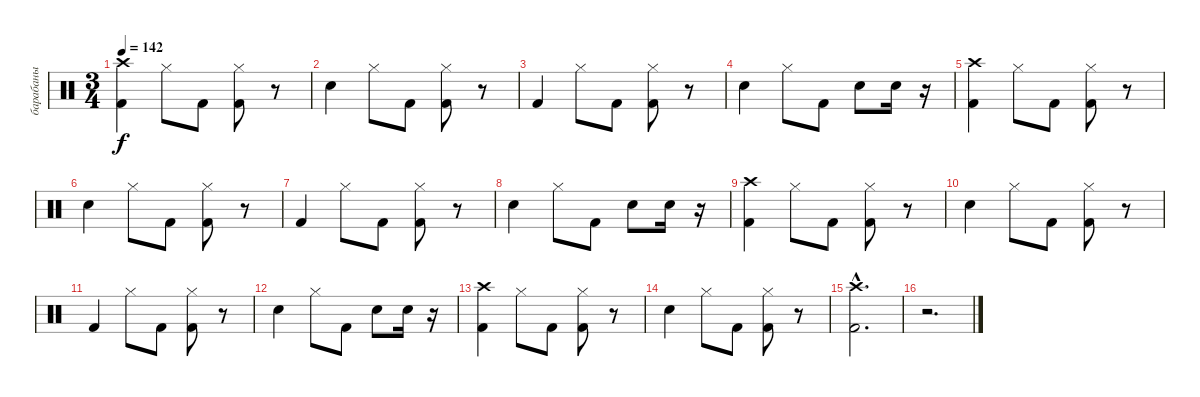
\track ("барабаны" "барабаны") {instrument percussion}
\staff {score}
\articulation defaults
\ts (3 4)
\tempo 142
\clef neutral
\ks c
("Crash high (hit)" "Kick (hit) 2").4{dy f} "Hi-Hat (closed)".8 "Kick (hit) 2".8 ("Hi-Hat (closed)" "Kick (hit) 2").8 r.8 |
"Snare (hit) 2".4 "Hi-Hat (closed)".8 "Kick (hit) 2".8 ("Hi-Hat (closed)" "Kick (hit) 2").8 r.8 |
"Kick (hit) 2".4 "Hi-Hat (closed)".8 "Kick (hit) 2".8 ("Hi-Hat (closed)" "Kick (hit) 2").8 r.8 |
"Snare (hit) 2".4 "Hi-Hat (closed)".8 "Kick (hit) 2".8 "Snare (hit) 2".8 "Snare (hit) 2".16 r.16 |
("Crash high (hit)" "Kick (hit) 2").4 "Hi-Hat (closed)".8 "Kick (hit) 2".8 ("Hi-Hat (closed)" "Kick (hit) 2").8 r.8 |
"Snare (hit) 2".4 "Hi-Hat (closed)".8 "Kick (hit) 2".8 ("Hi-Hat (closed)" "Kick (hit) 2").8 r.8 |
"Kick (hit) 2".4 "Hi-Hat (closed)".8 "Kick (hit) 2".8 ("Hi-Hat (closed)" "Kick (hit) 2").8 r.8 |
"Snare (hit) 2".4 "Hi-Hat (closed)".8 "Kick (hit) 2".8 "Snare (hit) 2".8 "Snare (hit) 2".16 r.16 |
("Crash high (hit)" "Kick (hit) 2").4 "Hi-Hat (closed)".8 "Kick (hit) 2".8 ("Hi-Hat (closed)" "Kick (hit) 2").8 r.8 |
"Snare (hit) 2".4 "Hi-Hat (closed)".8 "Kick (hit) 2".8 ("Hi-Hat (closed)" "Kick (hit) 2").8 r.8 |
"Kick (hit) 2".4 "Hi-Hat (closed)".8 "Kick (hit) 2".8 ("Hi-Hat (closed)" "Kick (hit) 2").8 r.8 |
"Snare (hit) 2".4 "Hi-Hat (closed)".8 "Kick (hit) 2".8 "Snare (hit) 2".8 "Snare (hit) 2".16 r.16 |
("Crash high (hit)" "Kick (hit) 2").4 "Hi-Hat (closed)".8 "Kick (hit) 2".8 ("Hi-Hat (closed)" "Kick (hit) 2").8 r.8 |
"Snare (hit) 2".4 "Hi-Hat (closed)".8 "Kick (hit) 2".8 ("Hi-Hat (closed)" "Kick (hit) 2").8 r.8 |
("Crash high (hit)"{hac} "Kick (hit) 2"{hac}).2{d} |
r.2{d}
